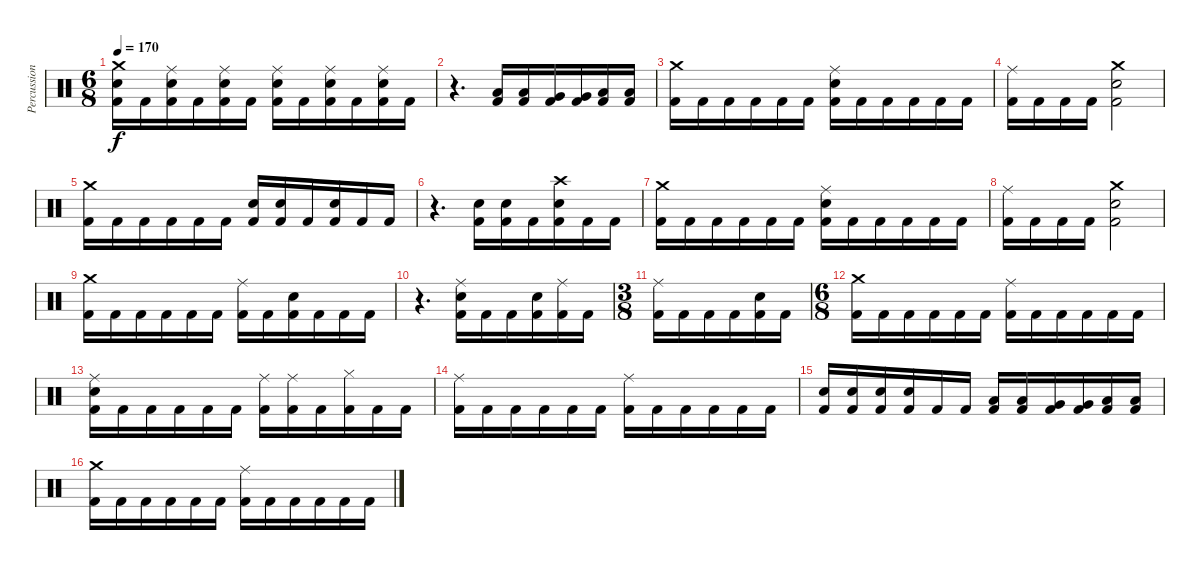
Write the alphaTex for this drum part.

\track ("Percussions" "Percussion") {instrument percussion}
\staff {score}
\articulation defaults
\ts (6 8)
\tempo 170
\clef neutral
\ks c
("Crash medium (hit)" "Electric Snare (hit)" "Kick (hit) 2").16{dy f} "Kick (hit) 2".16 ("Ride (middle)" "Electric Snare (hit)" "Kick (hit) 2").16 "Kick (hit) 2".16 ("Ride (middle)" "Electric Snare (hit)" "Kick (hit) 2").16 "Kick (hit) 2".16 ("Ride (middle)" "Electric Snare (hit)" "Kick (hit) 2").16 "Kick (hit) 2".16 ("Ride (middle)" "Electric Snare (hit)" "Kick (hit) 2").16 "Kick (hit) 2".16 ("Ride (middle)" "Electric Snare (hit)" "Kick (hit) 2").16 "Kick (hit) 2".16 |
r.4{d} ("Low Tom (hit)" "Kick (hit) 2").16 ("Low Tom (hit)" "Kick (hit) 2").16 ("Very Low Tom (hit)" "Kick (hit) 2").16 ("Very Low Tom (hit)" "Kick (hit) 2").16 ("Low Floor Tom (hit)" "Kick (hit) 2").16 ("Low Floor Tom (hit)" "Kick (hit) 2").16 |
("Crash medium (hit)" "Kick (hit) 2").16 "Kick (hit) 2".16 "Kick (hit) 2".16 "Kick (hit) 2".16 "Kick (hit) 2".16 "Kick (hit) 2".16 ("Ride (middle)" "Electric Snare (hit)" "Kick (hit) 2").16 "Kick (hit) 2".16 "Kick (hit) 2".16 "Kick (hit) 2".16 "Kick (hit) 2".16 "Kick (hit) 2".16 |
("Ride (middle)" "Kick (hit) 2").16 "Kick (hit) 2".16 "Kick (hit) 2".16 "Kick (hit) 2".16 ("Crash medium (hit)" "Electric Snare (hit)" "Kick (hit) 2").2 |
("Crash medium (hit)" "Kick (hit) 2").16 "Kick (hit) 2".16 "Kick (hit) 2".16 "Kick (hit) 2".16 "Kick (hit) 2".16 "Kick (hit) 2".16 ("Electric Snare (hit)" "Kick (hit) 2").16 ("Electric Snare (hit)" "Kick (hit) 2").16 "Kick (hit) 2".16 ("Electric Snare (hit)" "Kick (hit) 2").16 "Kick (hit) 2".16 "Kick (hit) 2".16 |
r.4{d} ("Electric Snare (hit)" "Kick (hit) 2").16 ("Electric Snare (hit)" "Kick (hit) 2").16 "Kick (hit) 2".16 ("Crash high (hit)" "Electric Snare (hit)" "Kick (hit) 2").16 "Kick (hit) 2".16 "Kick (hit) 2".16 |
("Crash medium (hit)" "Kick (hit) 2").16 "Kick (hit) 2".16 "Kick (hit) 2".16 "Kick (hit) 2".16 "Kick (hit) 2".16 "Kick (hit) 2".16 ("Ride (middle)" "Electric Snare (hit)" "Kick (hit) 2").16 "Kick (hit) 2".16 "Kick (hit) 2".16 "Kick (hit) 2".16 "Kick (hit) 2".16 "Kick (hit) 2".16 |
("Ride (middle)" "Kick (hit) 2").16 "Kick (hit) 2".16 "Kick (hit) 2".16 "Kick (hit) 2".16 ("Crash medium (hit)" "Electric Snare (hit)" "Kick (hit) 2").2 |
("Crash medium (hit)" "Kick (hit) 2").16 "Kick (hit) 2".16 "Kick (hit) 2".16 "Kick (hit) 2".16 "Kick (hit) 2".16 "Kick (hit) 2".16 ("Ride (middle)" "Kick (hit) 2").16 "Kick (hit) 2".16 ("Electric Snare (hit)" "Kick (hit) 2").16 "Kick (hit) 2".16 "Kick (hit) 2".16 "Kick (hit) 2".16 |
r.4{d} ("Ride (middle)" "Electric Snare (hit)" "Kick (hit) 2").16 "Kick (hit) 2".16 "Kick (hit) 2".16 ("Electric Snare (hit)" "Kick (hit) 2").16 ("Ride (middle)" "Kick (hit) 2").16 "Kick (hit) 2".16 |
\ts (3 8)
("Ride (middle)" "Kick (hit) 2").16 "Kick (hit) 2".16 "Kick (hit) 2".16 "Kick (hit) 2".16 ("Electric Snare (hit)" "Kick (hit) 2").16 "Kick (hit) 2".16 |
\ts (6 8)
("Crash medium (hit)" "Kick (hit) 2").16 "Kick (hit) 2".16 "Kick (hit) 2".16 "Kick (hit) 2".16 "Kick (hit) 2".16 "Kick (hit) 2".16 ("Ride (middle)" "Kick (hit) 2").16 "Kick (hit) 2".16 "Kick (hit) 2".16 "Kick (hit) 2".16 "Kick (hit) 2".16 "Kick (hit) 2".16 |
("Ride (middle)" "Electric Snare (hit)" "Kick (hit) 2").16 "Kick (hit) 2".16 "Kick (hit) 2".16 "Kick (hit) 2".16 "Kick (hit) 2".16 "Kick (hit) 2".16 ("Ride (middle)" "Kick (hit) 2").16 ("Ride (middle)" "Kick (hit) 2").16 "Kick (hit) 2".16 ("Hi-Hat (closed)" "Kick (hit) 2").16 "Kick (hit) 2".16 "Kick (hit) 2".16 |
("Ride (middle)" "Kick (hit) 2").16 "Kick (hit) 2".16 "Kick (hit) 2".16 "Kick (hit) 2".16 "Kick (hit) 2".16 "Kick (hit) 2".16 ("Ride (middle)" "Kick (hit) 2").16 "Kick (hit) 2".16 "Kick (hit) 2".16 "Kick (hit) 2".16 "Kick (hit) 2".16 "Kick (hit) 2".16 |
("Electric Snare (hit)" "Kick (hit) 2").16 ("Electric Snare (hit)" "Kick (hit) 2").16 ("Electric Snare (hit)" "Kick (hit) 2").16 ("Electric Snare (hit)" "Kick (hit) 2").16 "Kick (hit) 2".16 "Kick (hit) 2".16 ("Low Tom (hit)" "Kick (hit) 2").16 ("Low Tom (hit)" "Kick (hit) 2").16 ("Very Low Tom (hit)" "Kick (hit) 2").16 ("Very Low Tom (hit)" "Kick (hit) 2").16 ("Low Floor Tom (hit)" "Kick (hit) 2").16 ("Low Floor Tom (hit)" "Kick (hit) 2").16 |
("Crash medium (hit)" "Kick (hit) 2").16 "Kick (hit) 2".16 "Kick (hit) 2".16 "Kick (hit) 2".16 "Kick (hit) 2".16 "Kick (hit) 2".16 ("Ride (middle)" "Kick (hit) 2").16 "Kick (hit) 2".16 "Kick (hit) 2".16 "Kick (hit) 2".16 "Kick (hit) 2".16 "Kick (hit) 2".16
